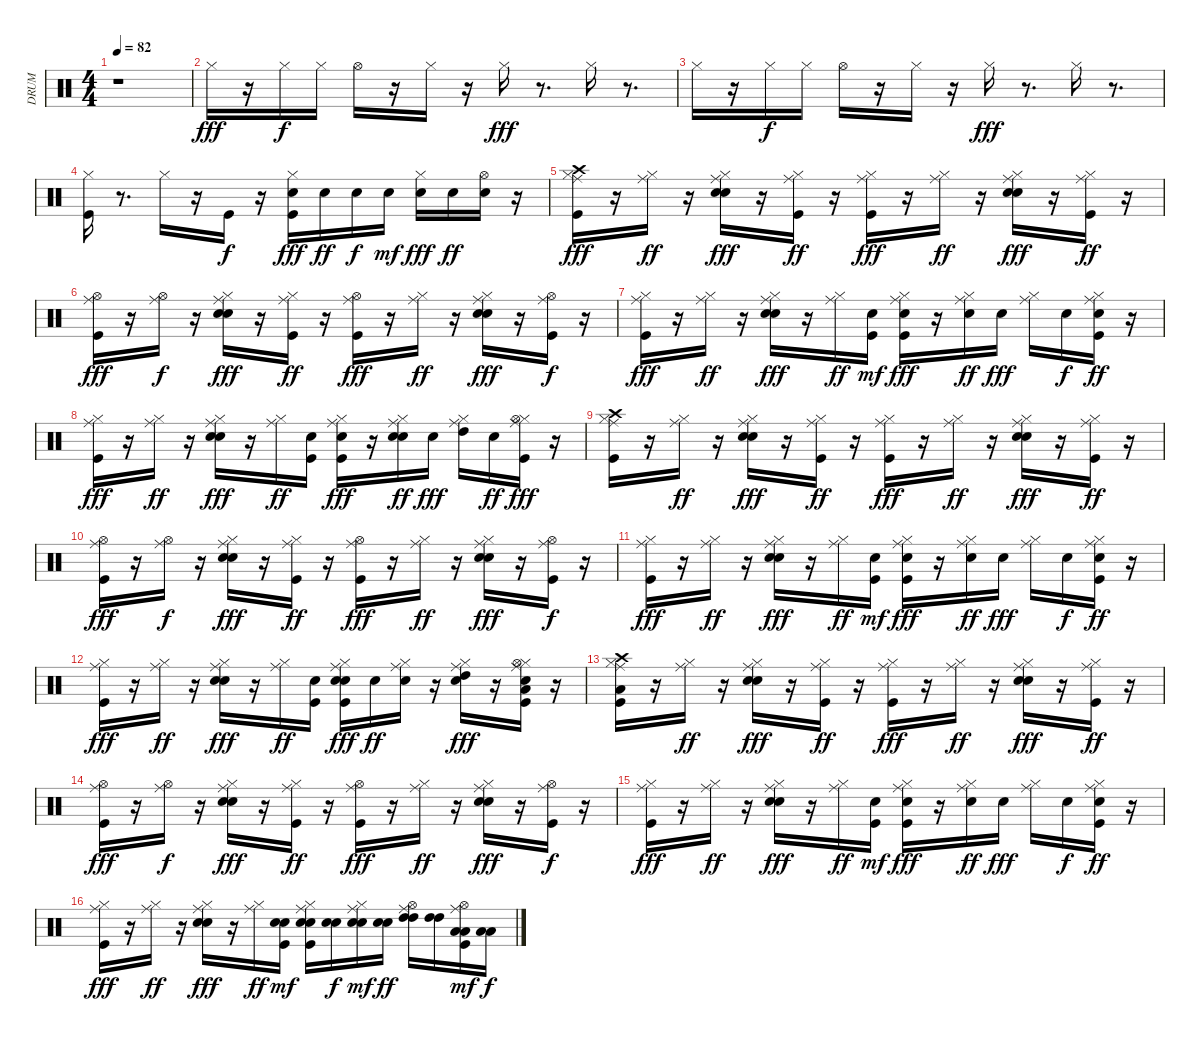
\track ("DRUM" "DRUM") {instrument percussion}
\staff {score}
\articulation defaults
\ts (4 4)
\tempo 82
\clef neutral
\ks c
r.1{dy fff} |
"Hi-Hat (closed)".16 r.16 "Hi-Hat (closed)".16{dy f} "Hi-Hat (closed)".16 "Hi-Hat (open)".16 r.16 "Hi-Hat (closed)".16 r.16 "Hi-Hat (closed)".16{dy fff} r.8{d} "Hi-Hat (closed)".16 r.8{d} |
"Hi-Hat (closed)".16 r.16 "Hi-Hat (closed)".16{dy f} "Hi-Hat (closed)".16 "Hi-Hat (open)".16 r.16 "Hi-Hat (closed)".16 r.16 "Hi-Hat (closed)".16{dy fff} r.8{d} "Hi-Hat (closed)".16 r.8{d} |
("Kick (hit)" "Hi-Hat (closed)").16 r.8{d} "Hi-Hat (closed)".16 r.16 "Kick (hit)".16{dy f} r.16 ("Kick (hit)" "Snare (hit) 2" "Hi-Hat (closed)").16{dy fff} "Snare (hit) 2".16{dy ff} "Snare (hit) 2".16{dy f} "Snare (hit) 2".16{dy mf} ("Snare (hit) 2" "Hi-Hat (closed)").16{dy fff} "Snare (hit) 2".16{dy ff} ("Snare (hit) 2" "Hi-Hat (open)").16 r.16 |
("Kick (hit)" "Hi-Hat (closed)" "Ride (middle)" "Crash high (hit)").16{dy fff} r.16 ("Hi-Hat (closed)" "Ride (middle)").16{dy ff} r.16 ("Snare (hit) 2" "Hi-Hat (closed)" "Ride (middle)" "Hand Clap (hit)").16{dy fff} r.16 ("Kick (hit)" "Hi-Hat (closed)" "Ride (middle)").16{dy ff} r.16 ("Kick (hit)" "Hi-Hat (closed)" "Ride (middle)").16{dy fff} r.16 ("Hi-Hat (closed)" "Ride (middle)").16{dy ff} r.16 ("Snare (hit) 2" "Hi-Hat (closed)" "Ride (middle)" "Hand Clap (hit)").16{dy fff} r.16 ("Kick (hit)" "Hi-Hat (closed)" "Ride (middle)").16{dy ff} r.16 |
("Kick (hit)" "Hi-Hat (open)" "Ride (middle)").16{dy fff} r.16 ("Hi-Hat (open)" "Ride (middle)").16{dy f} r.16 ("Snare (hit) 2" "Hi-Hat (closed)" "Ride (middle)" "Hand Clap (hit)").16{dy fff} r.16 ("Kick (hit)" "Hi-Hat (closed)" "Ride (middle)").16{dy ff} r.16 ("Kick (hit)" "Hi-Hat (open)" "Ride (middle)").16{dy fff} r.16 ("Hi-Hat (closed)" "Ride (middle)").16{dy ff} r.16 ("Snare (hit) 2" "Hi-Hat (closed)" "Ride (middle)" "Hand Clap (hit)").16{dy fff} r.16 ("Kick (hit)" "Hi-Hat (open)" "Ride (middle)").16{dy f} r.16 |
("Kick (hit)" "Hi-Hat (closed)" "Ride (middle)").16{dy fff} r.16 ("Hi-Hat (closed)" "Ride (middle)").16{dy ff} r.16 ("Snare (hit) 2" "Hi-Hat (closed)" "Ride (middle)" "Hand Clap (hit)").16{dy fff} r.16 ("Hi-Hat (closed)" "Ride (middle)").16{dy ff} ("Kick (hit)" "Snare (hit) 2").16{dy mf} ("Kick (hit)" "Snare (hit) 2" "Hi-Hat (closed)" "Ride (middle)").16{dy fff} r.16 ("Snare (hit) 2" "Hi-Hat (closed)" "Ride (middle)").16{dy ff} "Snare (hit) 2".16{dy fff} ("Hi-Hat (closed)" "Ride (middle)").16 "Snare (hit) 2".16{dy f} ("Kick (hit)" "Snare (hit) 2" "Hi-Hat (closed)" "Ride (middle)").16{dy ff} r.16 |
("Kick (hit)" "Hi-Hat (closed)" "Ride (middle)").16{dy fff} r.16 ("Hi-Hat (closed)" "Ride (middle)").16{dy ff} r.16 ("Snare (hit) 2" "Hi-Hat (closed)" "Ride (middle)" "Hand Clap (hit)").16{dy fff} r.16 ("Hi-Hat (closed)" "Ride (middle)").16{dy ff} ("Kick (hit)" "Snare (hit) 2").16 ("Kick (hit)" "Snare (hit) 2" "Hi-Hat (closed)" "Ride (middle)").16{dy fff} r.16 ("Snare (hit) 2" "Hi-Hat (closed)" "Ride (middle)" "Snare (hit) 2").16{dy ff} "Snare (hit) 2".16{dy fff} ("Hi-Hat (closed)" "Ride (middle)" "High Tom (hit)").16 "Snare (hit) 2".16{dy ff} ("Kick (hit)" "Hi-Hat (closed)" "Hi-Hat (open)" "Ride (middle)").16{dy fff} r.16 |
("Kick (hit)" "Hi-Hat (closed)" "Ride (middle)" "Crash high (hit)").16 r.16 ("Hi-Hat (closed)" "Ride (middle)").16{dy ff} r.16 ("Snare (hit) 2" "Hi-Hat (closed)" "Ride (middle)" "Hand Clap (hit)").16{dy fff} r.16 ("Kick (hit)" "Hi-Hat (closed)" "Ride (middle)").16{dy ff} r.16 ("Kick (hit)" "Hi-Hat (closed)" "Ride (middle)").16{dy fff} r.16 ("Hi-Hat (closed)" "Ride (middle)").16{dy ff} r.16 ("Snare (hit) 2" "Hi-Hat (closed)" "Ride (middle)" "Hand Clap (hit)").16{dy fff} r.16 ("Kick (hit)" "Hi-Hat (closed)" "Ride (middle)").16{dy ff} r.16 |
("Kick (hit)" "Hi-Hat (open)" "Ride (middle)").16{dy fff} r.16 ("Hi-Hat (open)" "Ride (middle)").16{dy f} r.16 ("Snare (hit) 2" "Hi-Hat (closed)" "Ride (middle)" "Hand Clap (hit)").16{dy fff} r.16 ("Kick (hit)" "Hi-Hat (closed)" "Ride (middle)").16{dy ff} r.16 ("Kick (hit)" "Hi-Hat (open)" "Ride (middle)").16{dy fff} r.16 ("Hi-Hat (closed)" "Ride (middle)").16{dy ff} r.16 ("Snare (hit) 2" "Hi-Hat (closed)" "Ride (middle)" "Hand Clap (hit)").16{dy fff} r.16 ("Kick (hit)" "Hi-Hat (open)" "Ride (middle)").16{dy f} r.16 |
("Kick (hit)" "Hi-Hat (closed)" "Ride (middle)").16{dy fff} r.16 ("Hi-Hat (closed)" "Ride (middle)").16{dy ff} r.16 ("Snare (hit) 2" "Hi-Hat (closed)" "Ride (middle)" "Hand Clap (hit)").16{dy fff} r.16 ("Hi-Hat (closed)" "Ride (middle)").16{dy ff} ("Kick (hit)" "Snare (hit) 2").16{dy mf} ("Kick (hit)" "Snare (hit) 2" "Hi-Hat (closed)" "Ride (middle)").16{dy fff} r.16 ("Snare (hit) 2" "Hi-Hat (closed)" "Ride (middle)").16{dy ff} "Snare (hit) 2".16{dy fff} ("Hi-Hat (closed)" "Ride (middle)").16 "Snare (hit) 2".16{dy f} ("Kick (hit)" "Snare (hit) 2" "Hi-Hat (closed)" "Ride (middle)").16{dy ff} r.16 |
("Kick (hit)" "Hi-Hat (closed)" "Ride (middle)").16{dy fff} r.16 ("Hi-Hat (closed)" "Ride (middle)").16{dy ff} r.16 ("Snare (hit) 2" "Hi-Hat (closed)" "Ride (middle)" "Hand Clap (hit)").16{dy fff} r.16 ("Hi-Hat (closed)" "Ride (middle)").16{dy ff} ("Kick (hit)" "Snare (hit) 2").16 ("Kick (hit)" "Snare (hit) 2" "Hi-Hat (closed)" "Ride (middle)" "Snare (hit) 2").16{dy fff} "Snare (hit) 2".16{dy ff} ("Snare (hit) 2" "Hi-Hat (closed)" "Ride (middle)").16 r.16 ("Snare (hit) 2" "Hi-Hat (closed)" "Ride (middle)" "High Tom (hit)").16{dy fff} r.16 ("Snare (hit) 2" "Kick (hit)" "Hi-Hat (closed)" "Hi-Hat (open)" "Ride (middle)" "Low Tom (hit)").16 r.16 |
("Low Floor Tom (hit)" "Kick (hit)" "Hi-Hat (closed)" "Ride (middle)" "Crash high (hit)").16 r.16 ("Hi-Hat (closed)" "Ride (middle)").16{dy ff} r.16 ("Snare (hit) 2" "Hi-Hat (closed)" "Ride (middle)" "Hand Clap (hit)").16{dy fff} r.16 ("Kick (hit)" "Hi-Hat (closed)" "Ride (middle)").16{dy ff} r.16 ("Kick (hit)" "Hi-Hat (closed)" "Ride (middle)").16{dy fff} r.16 ("Hi-Hat (closed)" "Ride (middle)").16{dy ff} r.16 ("Snare (hit) 2" "Hi-Hat (closed)" "Ride (middle)" "Hand Clap (hit)").16{dy fff} r.16 ("Kick (hit)" "Hi-Hat (closed)" "Ride (middle)").16{dy ff} r.16 |
("Kick (hit)" "Hi-Hat (open)" "Ride (middle)").16{dy fff} r.16 ("Hi-Hat (open)" "Ride (middle)").16{dy f} r.16 ("Snare (hit) 2" "Hi-Hat (closed)" "Ride (middle)" "Hand Clap (hit)").16{dy fff} r.16 ("Kick (hit)" "Hi-Hat (closed)" "Ride (middle)").16{dy ff} r.16 ("Kick (hit)" "Hi-Hat (open)" "Ride (middle)").16{dy fff} r.16 ("Hi-Hat (closed)" "Ride (middle)").16{dy ff} r.16 ("Snare (hit) 2" "Hi-Hat (closed)" "Ride (middle)" "Hand Clap (hit)").16{dy fff} r.16 ("Kick (hit)" "Hi-Hat (open)" "Ride (middle)").16{dy f} r.16 |
("Kick (hit)" "Hi-Hat (closed)" "Ride (middle)").16{dy fff} r.16 ("Hi-Hat (closed)" "Ride (middle)").16{dy ff} r.16 ("Snare (hit) 2" "Hi-Hat (closed)" "Ride (middle)" "Hand Clap (hit)").16{dy fff} r.16 ("Hi-Hat (closed)" "Ride (middle)").16{dy ff} ("Kick (hit)" "Snare (hit) 2").16{dy mf} ("Kick (hit)" "Snare (hit) 2" "Hi-Hat (closed)" "Ride (middle)").16{dy fff} r.16 ("Snare (hit) 2" "Hi-Hat (closed)" "Ride (middle)").16{dy ff} "Snare (hit) 2".16{dy fff} ("Hi-Hat (closed)" "Ride (middle)").16 "Snare (hit) 2".16{dy f} ("Kick (hit)" "Snare (hit) 2" "Hi-Hat (closed)" "Ride (middle)").16{dy ff} r.16 |
("Kick (hit)" "Hi-Hat (closed)" "Ride (middle)").16{dy fff} r.16 ("Hi-Hat (closed)" "Ride (middle)").16{dy ff} r.16 ("Snare (hit) 2" "Hi-Hat (closed)" "Ride (middle)" "Hand Clap (hit)").16{dy fff} r.16 ("Hi-Hat (closed)" "Ride (middle)").16{dy ff} ("Kick (hit)" "Snare (hit) 2" "Snare (hit) 2").16{dy mf} ("Kick (hit)" "Snare (hit) 2" "Hi-Hat (closed)" "Ride (middle)" "Snare (hit) 2").16 ("Snare (hit) 2" "Snare (hit) 2").16{dy f} ("Snare (hit) 2" "Hi-Hat (closed)" "Ride (middle)" "Snare (hit) 2").16{dy mf} ("Snare (hit) 2" "Snare (hit) 2").16{dy ff} ("Hi-Hat (open)" "Ride (middle)" "High Tom (hit)" "High Tom (hit)").16 ("High Tom (hit)" "High Tom (hit)").16 ("Kick (hit)" "Hi-Hat (open)" "Ride (middle)" "Low Tom (hit)" "Low Tom (hit)").16{dy mf} ("Low Tom (hit)" "Low Floor Tom (hit)").16{dy f}
